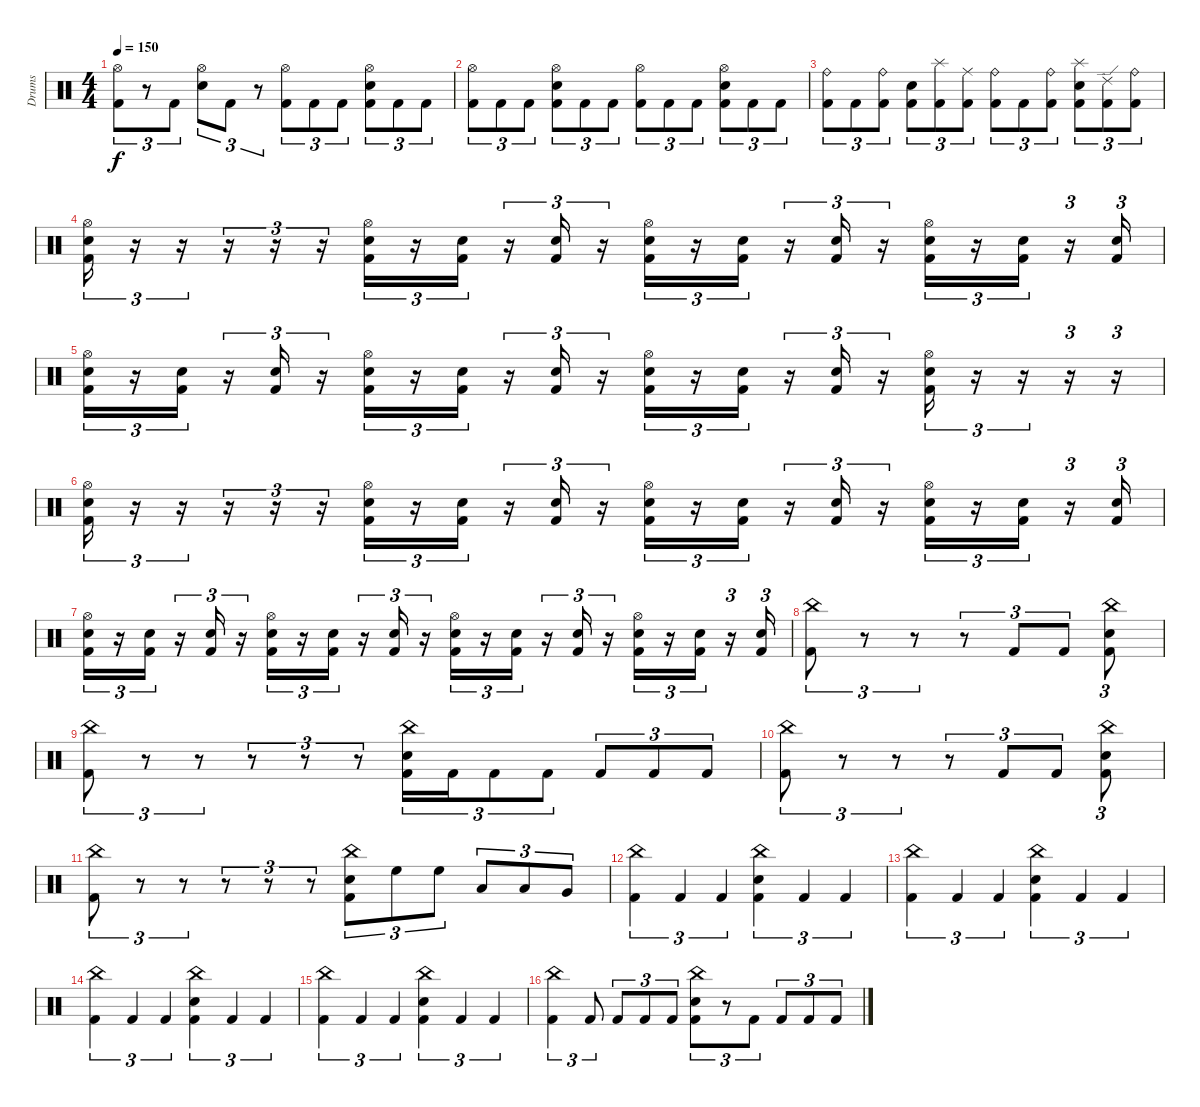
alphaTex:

\track ("Drums" "Drums") {instrument percussion}
\staff {score}
\articulation defaults
\ts (4 4)
\tempo 150
\clef neutral
\ks c
("Hi-Hat (open)" "Kick (hit) 2").8{tu (3 2) dy f} r.8{tu (3 2)} "Kick (hit) 2".8{tu (3 2)} ("Hi-Hat (open)" "Snare (hit) 2").8{tu (3 2)} "Kick (hit) 2".8{tu (3 2)} r.8{tu (3 2)} ("Hi-Hat (open)" "Kick (hit) 2").8{tu (3 2)} "Kick (hit) 2".8{tu (3 2)} "Kick (hit) 2".8{tu (3 2)} ("Hi-Hat (open)" "Snare (hit) 2" "Kick (hit) 2").8{tu (3 2)} "Kick (hit) 2".8{tu (3 2)} "Kick (hit) 2".8{tu (3 2)} |
("Hi-Hat (open)" "Kick (hit) 2").8{tu (3 2)} "Kick (hit) 2".8{tu (3 2)} "Kick (hit) 2".8{tu (3 2)} ("Hi-Hat (open)" "Snare (hit) 2" "Kick (hit) 2").8{tu (3 2)} "Kick (hit) 2".8{tu (3 2)} "Kick (hit) 2".8{tu (3 2)} ("Hi-Hat (open)" "Kick (hit) 2").8{tu (3 2)} "Kick (hit) 2".8{tu (3 2)} "Kick (hit) 2".8{tu (3 2)} ("Hi-Hat (open)" "Snare (hit) 2" "Kick (hit) 2").8{tu (3 2)} "Kick (hit) 2".8{tu (3 2)} "Kick (hit) 2".8{tu (3 2)} |
("Ride (bell)" "Kick (hit) 2").8{tu (3 2)} "Kick (hit) 2".8{tu (3 2)} ("Ride (bell)" "Kick (hit) 2").8{tu (3 2)} ("Snare (hit) 2" "Kick (hit) 2").8{tu (3 2)} ("Splash (hit)" "Kick (hit) 2").8{tu (3 2)} ("Ride (middle)" "Kick (hit) 2").8{tu (3 2)} ("Ride (bell)" "Kick (hit) 2").8{tu (3 2)} "Kick (hit) 2".8{tu (3 2)} ("Ride (bell)" "Kick (hit) 2").8{tu (3 2)} ("Splash (hit)" "Snare (hit) 2" "Kick (hit) 2").8{tu (3 2)} ("Ride (edge) 2" "Kick (hit) 2").8{tu (3 2)} ("Ride (bell)" "Kick (hit) 2").8{tu (3 2)} |
("Hi-Hat (open)" "Snare (hit) 2" "Kick (hit) 2").16{tu (3 2)} r.16{tu (3 2)} r.16{tu (3 2)} r.16{tu (3 2)} r.16{tu (3 2)} r.16{tu (3 2)} ("Hi-Hat (open)" "Snare (hit) 2" "Kick (hit) 2").16{tu (3 2)} r.16{tu (3 2)} ("Snare (hit) 2" "Kick (hit) 2").16{tu (3 2)} r.16{tu (3 2)} ("Snare (hit) 2" "Kick (hit) 2").16{tu (3 2)} r.16{tu (3 2)} ("Hi-Hat (open)" "Snare (hit) 2" "Kick (hit) 2").16{tu (3 2)} r.16{tu (3 2)} ("Snare (hit) 2" "Kick (hit) 2").16{tu (3 2)} r.16{tu (3 2)} ("Snare (hit) 2" "Kick (hit) 2").16{tu (3 2)} r.16{tu (3 2)} ("Hi-Hat (open)" "Snare (hit) 2" "Kick (hit) 2").16{tu (3 2)} r.16{tu (3 2)} ("Snare (hit) 2" "Kick (hit) 2").16{tu (3 2)} r.16{tu (3 2)} ("Snare (hit) 2" "Kick (hit) 2").16{tu (3 2)} |
("Hi-Hat (open)" "Snare (hit) 2" "Kick (hit) 2").16{tu (3 2)} r.16{tu (3 2)} ("Snare (hit) 2" "Kick (hit) 2").16{tu (3 2)} r.16{tu (3 2)} ("Snare (hit) 2" "Kick (hit) 2").16{tu (3 2)} r.16{tu (3 2)} ("Hi-Hat (open)" "Snare (hit) 2" "Kick (hit) 2").16{tu (3 2)} r.16{tu (3 2)} ("Snare (hit) 2" "Kick (hit) 2").16{tu (3 2)} r.16{tu (3 2)} ("Snare (hit) 2" "Kick (hit) 2").16{tu (3 2)} r.16{tu (3 2)} ("Hi-Hat (open)" "Snare (hit) 2" "Kick (hit) 2").16{tu (3 2)} r.16{tu (3 2)} ("Snare (hit) 2" "Kick (hit) 2").16{tu (3 2)} r.16{tu (3 2)} ("Snare (hit) 2" "Kick (hit) 2").16{tu (3 2)} r.16{tu (3 2)} ("Hi-Hat (open)" "Snare (hit) 2" "Kick (hit) 2").16{tu (3 2)} r.16{tu (3 2)} r.16{tu (3 2)} r.16{tu (3 2)} r.16{tu (3 2)} |
("Hi-Hat (open)" "Snare (hit) 2" "Kick (hit) 2").16{tu (3 2)} r.16{tu (3 2)} r.16{tu (3 2)} r.16{tu (3 2)} r.16{tu (3 2)} r.16{tu (3 2)} ("Hi-Hat (open)" "Snare (hit) 2" "Kick (hit) 2").16{tu (3 2)} r.16{tu (3 2)} ("Snare (hit) 2" "Kick (hit) 2").16{tu (3 2)} r.16{tu (3 2)} ("Snare (hit) 2" "Kick (hit) 2").16{tu (3 2)} r.16{tu (3 2)} ("Hi-Hat (open)" "Snare (hit) 2" "Kick (hit) 2").16{tu (3 2)} r.16{tu (3 2)} ("Snare (hit) 2" "Kick (hit) 2").16{tu (3 2)} r.16{tu (3 2)} ("Snare (hit) 2" "Kick (hit) 2").16{tu (3 2)} r.16{tu (3 2)} ("Hi-Hat (open)" "Snare (hit) 2" "Kick (hit) 2").16{tu (3 2)} r.16{tu (3 2)} ("Snare (hit) 2" "Kick (hit) 2").16{tu (3 2)} r.16{tu (3 2)} ("Snare (hit) 2" "Kick (hit) 2").16{tu (3 2)} |
("Hi-Hat (open)" "Snare (hit) 2" "Kick (hit) 2").16{tu (3 2)} r.16{tu (3 2)} ("Snare (hit) 2" "Kick (hit) 2").16{tu (3 2)} r.16{tu (3 2)} ("Snare (hit) 2" "Kick (hit) 2").16{tu (3 2)} r.16{tu (3 2)} ("Hi-Hat (open)" "Snare (hit) 2" "Kick (hit) 2").16{tu (3 2)} r.16{tu (3 2)} ("Snare (hit) 2" "Kick (hit) 2").16{tu (3 2)} r.16{tu (3 2)} ("Snare (hit) 2" "Kick (hit) 2").16{tu (3 2)} r.16{tu (3 2)} ("Hi-Hat (open)" "Snare (hit) 2" "Kick (hit) 2").16{tu (3 2)} r.16{tu (3 2)} ("Snare (hit) 2" "Kick (hit) 2").16{tu (3 2)} r.16{tu (3 2)} ("Snare (hit) 2" "Kick (hit) 2").16{tu (3 2)} r.16{tu (3 2)} ("Hi-Hat (open)" "Snare (hit) 2" "Kick (hit) 2").16{tu (3 2)} r.16{tu (3 2)} ("Snare (hit) 2" "Kick (hit) 2").16{tu (3 2)} r.16{tu (3 2)} ("Snare (hit) 2" "Kick (hit) 2").16{tu (3 2)} |
("China (hit)" "Kick (hit) 2").8{tu (3 2)} r.8{tu (3 2)} r.8{tu (3 2)} r.8{tu (3 2)} "Kick (hit) 2".8{tu (3 2)} "Kick (hit) 2".8{tu (3 2)} ("China (hit)" "Snare (hit) 2" "Kick (hit) 2").8{tu (3 2)} |
("China (hit)" "Kick (hit) 2").8{tu (3 2)} r.8{tu (3 2)} r.8{tu (3 2)} r.8{tu (3 2)} r.8{tu (3 2)} r.8{tu (3 2)} ("China (hit)" "Snare (hit) 2" "Kick (hit) 2").16{tu (3 2)} "Kick (hit) 2".16{tu (3 2)} "Kick (hit) 2".8{tu (3 2)} "Kick (hit) 2".8{tu (3 2)} "Kick (hit) 2".8{tu (3 2)} "Kick (hit) 2".8{tu (3 2)} "Kick (hit) 2".8{tu (3 2)} |
("China (hit)" "Kick (hit) 2").8{tu (3 2)} r.8{tu (3 2)} r.8{tu (3 2)} r.8{tu (3 2)} "Kick (hit) 2".8{tu (3 2)} "Kick (hit) 2".8{tu (3 2)} ("China (hit)" "Snare (hit) 2" "Kick (hit) 2").8{tu (3 2)} |
("China (hit)" "Kick (hit) 2").8{tu (3 2)} r.8{tu (3 2)} r.8{tu (3 2)} r.8{tu (3 2)} r.8{tu (3 2)} r.8{tu (3 2)} ("China (hit)" "Snare (hit) 2" "Kick (hit) 2").8{tu (3 2)} "High Floor Tom (hit)".8{tu (3 2)} "High Floor Tom (hit)".8{tu (3 2)} "Low Tom (hit)".8{tu (3 2)} "Low Tom (hit)".8{tu (3 2)} "Very Low Tom (hit)".8{tu (3 2)} |
("China (hit)" "Kick (hit) 2").4{tu (3 2)} "Kick (hit) 2".4{tu (3 2)} "Kick (hit) 2".4{tu (3 2)} ("China (hit)" "Snare (hit) 2" "Kick (hit) 2").4{tu (3 2)} "Kick (hit) 2".4{tu (3 2)} "Kick (hit) 2".4{tu (3 2)} |
("China (hit)" "Kick (hit) 2").4{tu (3 2)} "Kick (hit) 2".4{tu (3 2)} "Kick (hit) 2".4{tu (3 2)} ("China (hit)" "Snare (hit) 2" "Kick (hit) 2").4{tu (3 2)} "Kick (hit) 2".4{tu (3 2)} "Kick (hit) 2".4{tu (3 2)} |
("China (hit)" "Kick (hit) 2").4{tu (3 2)} "Kick (hit) 2".4{tu (3 2)} "Kick (hit) 2".4{tu (3 2)} ("China (hit)" "Snare (hit) 2" "Kick (hit) 2").4{tu (3 2)} "Kick (hit) 2".4{tu (3 2)} "Kick (hit) 2".4{tu (3 2)} |
("China (hit)" "Kick (hit) 2").4{tu (3 2)} "Kick (hit) 2".4{tu (3 2)} "Kick (hit) 2".4{tu (3 2)} ("China (hit)" "Snare (hit) 2" "Kick (hit) 2").4{tu (3 2)} "Kick (hit) 2".4{tu (3 2)} "Kick (hit) 2".4{tu (3 2)} |
("China (hit)" "Kick (hit) 2").4{tu (3 2)} "Kick (hit) 2".8{tu (3 2)} "Kick (hit) 2".8{tu (3 2)} "Kick (hit) 2".8{tu (3 2)} "Kick (hit) 2".8{tu (3 2)} ("China (hit)" "Snare (hit) 2" "Kick (hit) 2").8{tu (3 2)} r.8{tu (3 2)} "Kick (hit) 2".8{tu (3 2)} "Kick (hit) 2".8{tu (3 2)} "Kick (hit) 2".8{tu (3 2)} "Kick (hit) 2".8{tu (3 2)}
